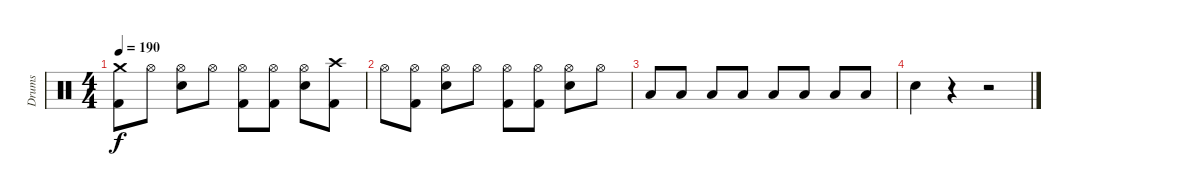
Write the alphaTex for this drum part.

\track ("Drums" "Drums") {instrument percussion}
\staff {score}
\articulation defaults
\ts (4 4)
\tempo 190
\clef neutral
\ks c
("Crash medium (hit)" "Kick (hit) 2").8{dy f} "Hi-Hat (open)".8 ("Hi-Hat (open)" "Electric Snare (hit)").8 "Hi-Hat (open)".8 ("Hi-Hat (open)" "Kick (hit) 2").8 ("Hi-Hat (open)" "Kick (hit) 2").8 ("Hi-Hat (open)" "Electric Snare (hit)").8 ("Crash high (hit)" "Kick (hit) 2").8 |
"Hi-Hat (open)".8 ("Hi-Hat (open)" "Kick (hit) 2").8 ("Hi-Hat (open)" "Electric Snare (hit)").8 "Hi-Hat (open)".8 ("Hi-Hat (open)" "Kick (hit) 2").8 ("Hi-Hat (open)" "Kick (hit) 2").8 ("Hi-Hat (open)" "Electric Snare (hit)").8 "Hi-Hat (open)".8 |
"Low Tom (hit)".8 "Low Tom (hit)".8 "Low Tom (hit)".8 "Low Tom (hit)".8 "Low Tom (hit)".8 "Low Tom (hit)".8 "Low Tom (hit)".8 "Low Tom (hit)".8 |
"Electric Snare (hit)".4 r.4 r.2
